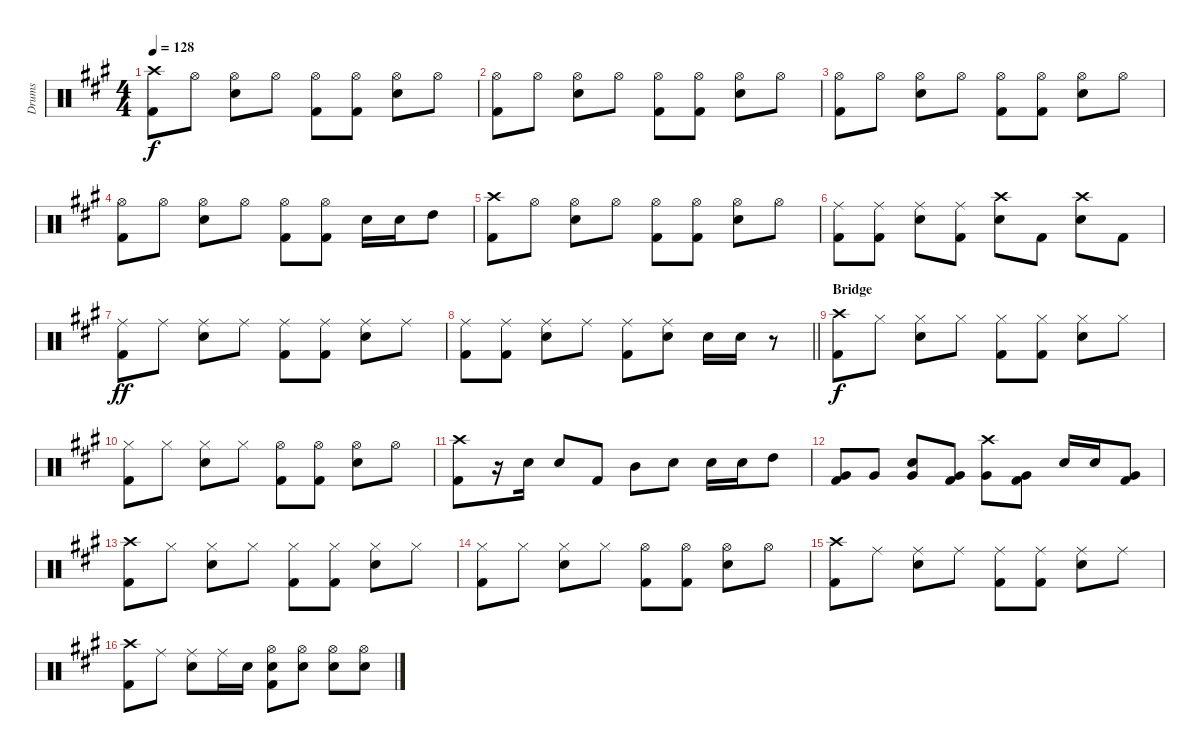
\track ("Drums" "Drums") {instrument percussion}
\staff {score}
\articulation defaults
\ts (4 4)
\tempo 128
\clef neutral
\ks a
("Crash high (hit)" "Kick (hit) 2").8{dy f} "Hi-Hat (open)".8 ("Hi-Hat (open)" "Snare (hit) 2").8 "Hi-Hat (open)".8 ("Hi-Hat (open)" "Kick (hit) 2").8 ("Hi-Hat (open)" "Kick (hit) 2").8 ("Hi-Hat (open)" "Snare (hit) 2").8 "Hi-Hat (open)".8 |
("Hi-Hat (open)" "Kick (hit) 2").8 "Hi-Hat (open)".8 ("Hi-Hat (open)" "Snare (hit) 2").8 "Hi-Hat (open)".8 ("Hi-Hat (open)" "Kick (hit) 2").8 ("Hi-Hat (open)" "Kick (hit) 2").8 ("Hi-Hat (open)" "Snare (hit) 2").8 "Hi-Hat (open)".8 |
("Hi-Hat (open)" "Kick (hit) 2").8 "Hi-Hat (open)".8 ("Hi-Hat (open)" "Snare (hit) 2").8 "Hi-Hat (open)".8 ("Hi-Hat (open)" "Kick (hit) 2").8 ("Hi-Hat (open)" "Kick (hit) 2").8 ("Hi-Hat (open)" "Snare (hit) 2").8 "Hi-Hat (open)".8 |
("Hi-Hat (open)" "Kick (hit) 2").8 "Hi-Hat (open)".8 ("Hi-Hat (open)" "Snare (hit) 2").8 "Hi-Hat (open)".8 ("Hi-Hat (open)" "Kick (hit) 2").8 ("Hi-Hat (open)" "Kick (hit) 2").8 "Snare (hit) 2".16 "Snare (hit) 2".16 "High Tom (hit)".8 |
("Crash high (hit)" "Kick (hit) 2").8 "Hi-Hat (open)".8 ("Hi-Hat (open)" "Snare (hit) 2").8 "Hi-Hat (open)".8 ("Hi-Hat (open)" "Kick (hit) 2").8 ("Hi-Hat (open)" "Kick (hit) 2").8 ("Hi-Hat (open)" "Snare (hit) 2").8 "Hi-Hat (open)".8 |
("Ride (middle)" "Kick (hit) 2").8 ("Ride (middle)" "Kick (hit) 2").8 ("Ride (middle)" "Snare (hit) 2").8 ("Ride (middle)" "Kick (hit) 2").8 ("Crash high (hit)" "Snare (hit) 2").8 "Kick (hit) 2".8 ("Crash high (hit)" "Snare (hit) 2").8 "Kick (hit) 2".8 |
("Ride (middle)" "Kick (hit) 2").8{dy ff} "Ride (middle)".8 ("Ride (middle)" "Snare (hit) 2").8 "Ride (middle)".8 ("Ride (middle)" "Kick (hit) 2").8 ("Ride (middle)" "Kick (hit) 2").8 ("Ride (middle)" "Snare (hit) 2").8 "Ride (middle)".8 |
\barLineRight lightlight
("Ride (middle)" "Kick (hit) 2").8 ("Ride (middle)" "Kick (hit) 2").8 ("Ride (middle)" "Snare (hit) 2").8 "Ride (middle)".8 ("Ride (middle)" "Kick (hit) 2").8 ("Ride (middle)" "Snare (hit) 2").8 "Snare (hit) 2".16 "Snare (hit) 2".16 r.8 |
\section ("" "Bridge")
("Crash high (hit)" "Kick (hit) 2").8{dy f} "Hi-Hat (closed)".8 ("Hi-Hat (closed)" "Snare (hit) 2").8 "Hi-Hat (closed)".8 ("Hi-Hat (closed)" "Kick (hit) 2").8 ("Hi-Hat (closed)" "Kick (hit) 2").8 ("Hi-Hat (closed)" "Snare (hit) 2").8 "Hi-Hat (closed)".8 |
("Hi-Hat (closed)" "Kick (hit) 2").8 "Hi-Hat (closed)".8 ("Hi-Hat (closed)" "Snare (hit) 2").8 "Hi-Hat (closed)".8 ("Hi-Hat (open)" "Kick (hit) 2").8 ("Hi-Hat (open)" "Kick (hit) 2").8 ("Hi-Hat (open)" "Snare (hit) 2").8 "Hi-Hat (open)".8 |
("Crash high (hit)" "Kick (hit) 2").8 r.16 "Snare (hit) 2".16 "Snare (hit) 2".8 "Kick (hit) 2".8 "Mid Tom (hit)".8 "Snare (hit) 2".8 "Snare (hit) 2".16 "Snare (hit) 2".16 "High Tom (hit)".8 |
("Very Low Tom (hit)" "Kick (hit) 2").8 "Very Low Tom (hit)".8 ("Snare (hit) 2" "Very Low Tom (hit)").8 ("Very Low Tom (hit)" "Kick (hit) 2").8 ("Crash high (hit)" "Very Low Tom (hit)").8 ("Very Low Tom (hit)" "Kick (hit) 2").8 "Snare (hit) 2".16 "Snare (hit) 2".16 ("Very Low Tom (hit)" "Kick (hit) 2").8 |
("Crash high (hit)" "Kick (hit) 2").8 "Hi-Hat (closed)".8 ("Hi-Hat (closed)" "Snare (hit) 2").8 "Hi-Hat (closed)".8 ("Hi-Hat (closed)" "Kick (hit) 2").8 ("Hi-Hat (closed)" "Kick (hit) 2").8 ("Hi-Hat (closed)" "Snare (hit) 2").8 "Hi-Hat (closed)".8 |
("Hi-Hat (closed)" "Kick (hit) 2").8 "Hi-Hat (closed)".8 ("Hi-Hat (closed)" "Snare (hit) 2").8 "Hi-Hat (closed)".8 ("Hi-Hat (open)" "Kick (hit) 2").8 ("Hi-Hat (open)" "Kick (hit) 2").8 ("Hi-Hat (open)" "Snare (hit) 2").8 "Hi-Hat (open)".8 |
("Crash high (hit)" "Kick (hit) 2").8 "Ride (middle)".8 ("Ride (middle)" "Snare (hit) 2").8 "Ride (middle)".8 ("Ride (middle)" "Kick (hit) 2").8 ("Ride (middle)" "Kick (hit) 2").8 ("Ride (middle)" "Snare (hit) 2").8 "Ride (middle)".8 |
("Crash high (hit)" "Kick (hit) 2").8 "Ride (middle)".8 ("Ride (middle)" "Snare (hit) 2").8 "Ride (middle)".16 "Snare (hit) 2".16 ("Hi-Hat (open)" "Snare (hit) 2" "Kick (hit) 2").8 ("Hi-Hat (open)" "Snare (hit) 2").8 ("Hi-Hat (open)" "Snare (hit) 2").8 ("Hi-Hat (open)" "Snare (hit) 2").8
